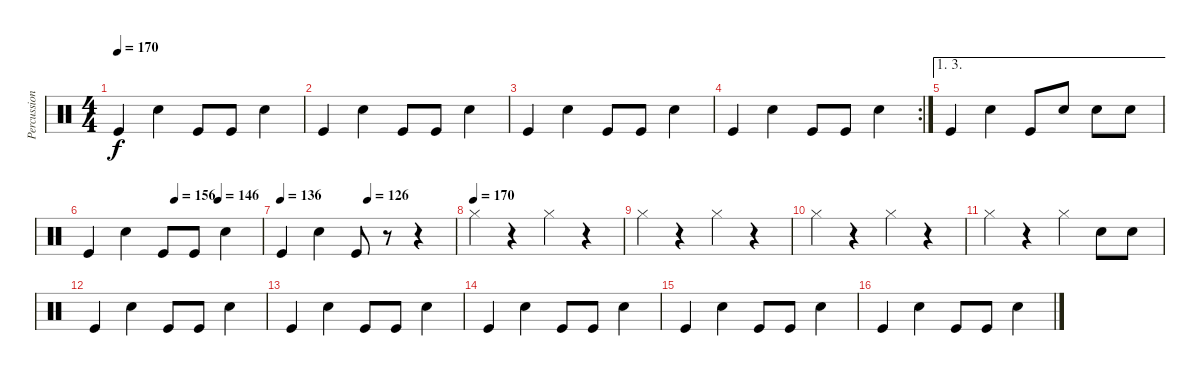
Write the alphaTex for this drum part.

\track ("Percussion" "Percussion") {instrument percussion}
\staff {score}
\articulation defaults
\ts (4 4)
\tempo 170
\clef neutral
\ks c "Kick (hit)".4{dy f} "Snare (hit) 2".4 "Kick (hit)".8 "Kick (hit)".8 "Snare (hit) 2".4
|
"Kick (hit)".4 "Snare (hit) 2".4 "Kick (hit)".8 "Kick (hit)".8 "Snare (hit) 2".4 |
"Kick (hit)".4 "Snare (hit) 2".4 "Kick (hit)".8 "Kick (hit)".8 "Snare (hit) 2".4 |
\rc 2 "Kick (hit)".4 "Snare (hit) 2".4 "Kick (hit)".8 "Kick (hit)".8 "Snare (hit) 2".4
|
\ae (1 3)
"Kick (hit)".4 "Snare (hit) 2".4 "Kick (hit)".8 "Snare (hit) 2".8 "Snare (hit) 2".8 "Snare (hit) 2".8 |
\tempo (156 0.5)
\tempo (146 0.75)
"Kick (hit)".4 "Snare (hit) 2".4 "Kick (hit)".8 "Kick (hit)".8 "Snare (hit) 2".4 |
\tempo 136
\tempo (126 0.5)
"Kick (hit)".4 "Snare (hit) 2".4 "Kick (hit)".8 r.8 r.4 |
\tempo (170)
"Hi-Hat (closed)".4 r.4 "Hi-Hat (closed)".4 r.4 |
"Hi-Hat (closed)".4 r.4 "Hi-Hat (closed)".4 r.4 |
"Hi-Hat (closed)".4 r.4 "Hi-Hat (closed)".4 r.4 |
"Hi-Hat (closed)".4 r.4 "Hi-Hat (closed)".4 "Snare (hit) 2".8 "Snare (hit) 2".8 |
"Kick (hit)".4 "Snare (hit) 2".4 "Kick (hit)".8 "Kick (hit)".8 "Snare (hit) 2".4 |
"Kick (hit)".4 "Snare (hit) 2".4 "Kick (hit)".8 "Kick (hit)".8 "Snare (hit) 2".4 |
"Kick (hit)".4 "Snare (hit) 2".4 "Kick (hit)".8 "Kick (hit)".8 "Snare (hit) 2".4 |
"Kick (hit)".4 "Snare (hit) 2".4 "Kick (hit)".8 "Kick (hit)".8 "Snare (hit) 2".4 |
"Kick (hit)".4 "Snare (hit) 2".4 "Kick (hit)".8 "Kick (hit)".8 "Snare (hit) 2".4
